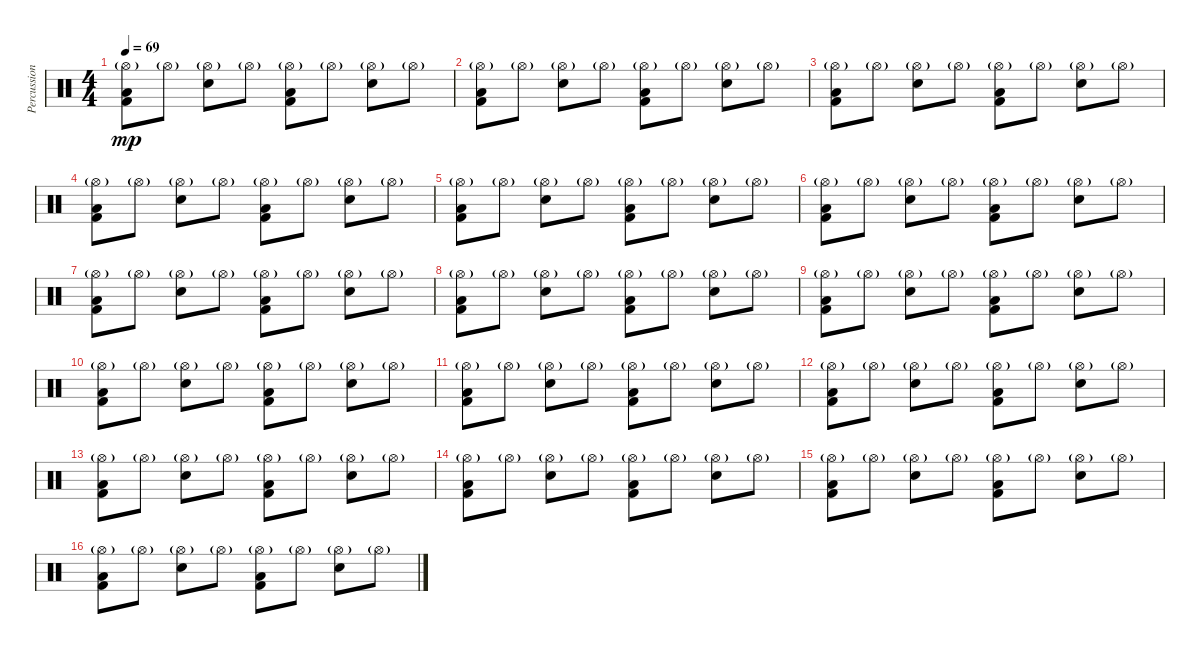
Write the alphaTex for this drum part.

\track ("Percussions" "Percussion") {instrument percussion}
\staff {score}
\articulation defaults
\ts (4 4)
\tempo 69
\clef neutral
\ks c
("Hi-Hat (open)"{g} "Low Floor Tom (hit)" "Kick (hit) 2").8{dy mp} "Hi-Hat (open)"{g}.8 ("Hi-Hat (open)"{g} "Electric Snare (hit)").8 "Hi-Hat (open)"{g}.8 ("Hi-Hat (open)"{g} "Low Floor Tom (hit)" "Kick (hit) 2").8 "Hi-Hat (open)"{g}.8 ("Hi-Hat (open)"{g} "Electric Snare (hit)").8 "Hi-Hat (open)"{g}.8 |
("Hi-Hat (open)"{g} "Low Floor Tom (hit)" "Kick (hit) 2").8 "Hi-Hat (open)"{g}.8 ("Hi-Hat (open)"{g} "Electric Snare (hit)").8 "Hi-Hat (open)"{g}.8 ("Hi-Hat (open)"{g} "Low Floor Tom (hit)" "Kick (hit) 2").8 "Hi-Hat (open)"{g}.8 ("Hi-Hat (open)"{g} "Electric Snare (hit)").8 "Hi-Hat (open)"{g}.8 |
("Hi-Hat (open)"{g} "Low Floor Tom (hit)" "Kick (hit) 2").8 "Hi-Hat (open)"{g}.8 ("Hi-Hat (open)"{g} "Electric Snare (hit)").8 "Hi-Hat (open)"{g}.8 ("Hi-Hat (open)"{g} "Low Floor Tom (hit)" "Kick (hit) 2").8 "Hi-Hat (open)"{g}.8 ("Hi-Hat (open)"{g} "Electric Snare (hit)").8 "Hi-Hat (open)"{g}.8 |
("Hi-Hat (open)"{g} "Low Floor Tom (hit)" "Kick (hit) 2").8 "Hi-Hat (open)"{g}.8 ("Hi-Hat (open)"{g} "Electric Snare (hit)").8 "Hi-Hat (open)"{g}.8 ("Hi-Hat (open)"{g} "Low Floor Tom (hit)" "Kick (hit) 2").8 "Hi-Hat (open)"{g}.8 ("Hi-Hat (open)"{g} "Electric Snare (hit)").8 "Hi-Hat (open)"{g}.8 |
("Hi-Hat (open)"{g} "Low Floor Tom (hit)" "Kick (hit) 2").8 "Hi-Hat (open)"{g}.8 ("Hi-Hat (open)"{g} "Electric Snare (hit)").8 "Hi-Hat (open)"{g}.8 ("Hi-Hat (open)"{g} "Low Floor Tom (hit)" "Kick (hit) 2").8 "Hi-Hat (open)"{g}.8 ("Hi-Hat (open)"{g} "Electric Snare (hit)").8 "Hi-Hat (open)"{g}.8 |
("Hi-Hat (open)"{g} "Low Floor Tom (hit)" "Kick (hit) 2").8 "Hi-Hat (open)"{g}.8 ("Hi-Hat (open)"{g} "Electric Snare (hit)").8 "Hi-Hat (open)"{g}.8 ("Hi-Hat (open)"{g} "Low Floor Tom (hit)" "Kick (hit) 2").8 "Hi-Hat (open)"{g}.8 ("Hi-Hat (open)"{g} "Electric Snare (hit)").8 "Hi-Hat (open)"{g}.8 |
("Hi-Hat (open)"{g} "Low Floor Tom (hit)" "Kick (hit) 2").8 "Hi-Hat (open)"{g}.8 ("Hi-Hat (open)"{g} "Electric Snare (hit)").8 "Hi-Hat (open)"{g}.8 ("Hi-Hat (open)"{g} "Low Floor Tom (hit)" "Kick (hit) 2").8 "Hi-Hat (open)"{g}.8 ("Hi-Hat (open)"{g} "Electric Snare (hit)").8 "Hi-Hat (open)"{g}.8 |
("Hi-Hat (open)"{g} "Low Floor Tom (hit)" "Kick (hit) 2").8 "Hi-Hat (open)"{g}.8 ("Hi-Hat (open)"{g} "Electric Snare (hit)").8 "Hi-Hat (open)"{g}.8 ("Hi-Hat (open)"{g} "Low Floor Tom (hit)" "Kick (hit) 2").8 "Hi-Hat (open)"{g}.8 ("Hi-Hat (open)"{g} "Electric Snare (hit)").8 "Hi-Hat (open)"{g}.8 |
("Hi-Hat (open)"{g} "Low Floor Tom (hit)" "Kick (hit) 2").8 "Hi-Hat (open)"{g}.8 ("Hi-Hat (open)"{g} "Electric Snare (hit)").8 "Hi-Hat (open)"{g}.8 ("Hi-Hat (open)"{g} "Low Floor Tom (hit)" "Kick (hit) 2").8 "Hi-Hat (open)"{g}.8 ("Hi-Hat (open)"{g} "Electric Snare (hit)").8 "Hi-Hat (open)"{g}.8 |
("Hi-Hat (open)"{g} "Low Floor Tom (hit)" "Kick (hit) 2").8 "Hi-Hat (open)"{g}.8 ("Hi-Hat (open)"{g} "Electric Snare (hit)").8 "Hi-Hat (open)"{g}.8 ("Hi-Hat (open)"{g} "Low Floor Tom (hit)" "Kick (hit) 2").8 "Hi-Hat (open)"{g}.8 ("Hi-Hat (open)"{g} "Electric Snare (hit)").8 "Hi-Hat (open)"{g}.8 |
("Hi-Hat (open)"{g} "Low Floor Tom (hit)" "Kick (hit) 2").8 "Hi-Hat (open)"{g}.8 ("Hi-Hat (open)"{g} "Electric Snare (hit)").8 "Hi-Hat (open)"{g}.8 ("Hi-Hat (open)"{g} "Low Floor Tom (hit)" "Kick (hit) 2").8 "Hi-Hat (open)"{g}.8 ("Hi-Hat (open)"{g} "Electric Snare (hit)").8 "Hi-Hat (open)"{g}.8 |
("Hi-Hat (open)"{g} "Low Floor Tom (hit)" "Kick (hit) 2").8 "Hi-Hat (open)"{g}.8 ("Hi-Hat (open)"{g} "Electric Snare (hit)").8 "Hi-Hat (open)"{g}.8 ("Hi-Hat (open)"{g} "Low Floor Tom (hit)" "Kick (hit) 2").8 "Hi-Hat (open)"{g}.8 ("Hi-Hat (open)"{g} "Electric Snare (hit)").8 "Hi-Hat (open)"{g}.8 |
("Hi-Hat (open)"{g} "Low Floor Tom (hit)" "Kick (hit) 2").8 "Hi-Hat (open)"{g}.8 ("Hi-Hat (open)"{g} "Electric Snare (hit)").8 "Hi-Hat (open)"{g}.8 ("Hi-Hat (open)"{g} "Low Floor Tom (hit)" "Kick (hit) 2").8 "Hi-Hat (open)"{g}.8 ("Hi-Hat (open)"{g} "Electric Snare (hit)").8 "Hi-Hat (open)"{g}.8 |
("Hi-Hat (open)"{g} "Low Floor Tom (hit)" "Kick (hit) 2").8 "Hi-Hat (open)"{g}.8 ("Hi-Hat (open)"{g} "Electric Snare (hit)").8 "Hi-Hat (open)"{g}.8 ("Hi-Hat (open)"{g} "Low Floor Tom (hit)" "Kick (hit) 2").8 "Hi-Hat (open)"{g}.8 ("Hi-Hat (open)"{g} "Electric Snare (hit)").8 "Hi-Hat (open)"{g}.8 |
("Hi-Hat (open)"{g} "Low Floor Tom (hit)" "Kick (hit) 2").8 "Hi-Hat (open)"{g}.8 ("Hi-Hat (open)"{g} "Electric Snare (hit)").8 "Hi-Hat (open)"{g}.8 ("Hi-Hat (open)"{g} "Low Floor Tom (hit)" "Kick (hit) 2").8 "Hi-Hat (open)"{g}.8 ("Hi-Hat (open)"{g} "Electric Snare (hit)").8 "Hi-Hat (open)"{g}.8 |
("Hi-Hat (open)"{g} "Low Floor Tom (hit)" "Kick (hit) 2").8 "Hi-Hat (open)"{g}.8 ("Hi-Hat (open)"{g} "Electric Snare (hit)").8 "Hi-Hat (open)"{g}.8 ("Hi-Hat (open)"{g} "Low Floor Tom (hit)" "Kick (hit) 2").8 "Hi-Hat (open)"{g}.8 ("Hi-Hat (open)"{g} "Electric Snare (hit)").8 "Hi-Hat (open)"{g}.8
